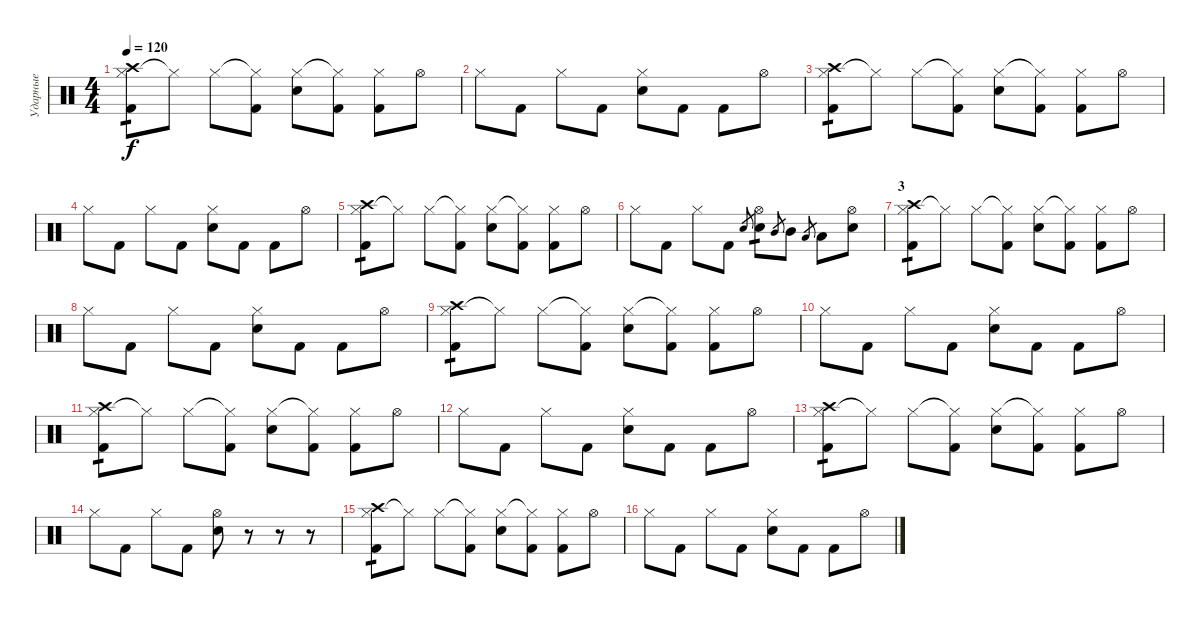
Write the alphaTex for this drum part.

\track ("Ударные" "Ударные") {instrument percussion}
\staff {score}
\articulation defaults
\ts (4 4)
\tempo 120
\clef neutral
\ks c
("Hi-Hat (closed)" "Kick (hit) 2" "Crash high (hit)").8{tp 1 dy f} "Hi-Hat (closed)"{t}.8 "Hi-Hat (closed)".8 ("Hi-Hat (closed)"{t} "Kick (hit) 2").8 ("Hi-Hat (closed)" "Electric Snare (hit)").8 ("Hi-Hat (closed)"{t} "Kick (hit) 2").8 ("Hi-Hat (closed)" "Kick (hit) 2").8 "Hi-Hat (open)".8 |
"Hi-Hat (closed)".8 "Kick (hit) 2".8 "Hi-Hat (closed)".8 "Kick (hit) 2".8 ("Electric Snare (hit)" "Hi-Hat (closed)").8 "Kick (hit) 2".8 "Kick (hit) 2".8 "Hi-Hat (open)".8 |
("Hi-Hat (closed)" "Kick (hit) 2" "Crash high (hit)").8{tp 1} "Hi-Hat (closed)"{t}.8 "Hi-Hat (closed)".8 ("Hi-Hat (closed)"{t} "Kick (hit) 2").8 ("Hi-Hat (closed)" "Electric Snare (hit)").8 ("Hi-Hat (closed)"{t} "Kick (hit) 2").8 ("Hi-Hat (closed)" "Kick (hit) 2").8 "Hi-Hat (open)".8 |
"Hi-Hat (closed)".8 "Kick (hit) 2".8 "Hi-Hat (closed)".8 "Kick (hit) 2".8 ("Electric Snare (hit)" "Hi-Hat (closed)").8 "Kick (hit) 2".8 "Kick (hit) 2".8 "Hi-Hat (open)".8 |
("Hi-Hat (closed)" "Kick (hit) 2" "Crash high (hit)").8{tp 1} "Hi-Hat (closed)"{t}.8 "Hi-Hat (closed)".8 ("Hi-Hat (closed)"{t} "Kick (hit) 2").8 ("Hi-Hat (closed)" "Electric Snare (hit)").8 ("Hi-Hat (closed)"{t} "Kick (hit) 2").8 ("Hi-Hat (closed)" "Kick (hit) 2").8 "Hi-Hat (open)".8 |
"Hi-Hat (closed)".8 "Kick (hit) 2".8 "Hi-Hat (closed)".8 "Kick (hit) 2".8 "Electric Snare (hit)".8{gr} ("Electric Snare (hit)" "Hi-Hat (open)").8{tp 1} "Mid Tom (hit)".8{gr} "Mid Tom (hit)".8 "Low Tom (hit)".8{gr} "Low Tom (hit)".8 ("Hi-Hat (open)" "Electric Snare (hit)").8 |
\section ("" "3")
("Hi-Hat (closed)" "Kick (hit) 2" "Crash high (hit)").8{tp 1} "Hi-Hat (closed)"{t}.8 "Hi-Hat (closed)".8 ("Hi-Hat (closed)"{t} "Kick (hit) 2").8 ("Hi-Hat (closed)" "Electric Snare (hit)").8 ("Hi-Hat (closed)"{t} "Kick (hit) 2").8 ("Hi-Hat (closed)" "Kick (hit) 2").8 "Hi-Hat (open)".8 |
"Hi-Hat (closed)".8 "Kick (hit) 2".8 "Hi-Hat (closed)".8 "Kick (hit) 2".8 ("Electric Snare (hit)" "Hi-Hat (closed)").8 "Kick (hit) 2".8 "Kick (hit) 2".8 "Hi-Hat (open)".8 |
("Hi-Hat (closed)" "Kick (hit) 2" "Crash high (hit)").8{tp 1} "Hi-Hat (closed)"{t}.8 "Hi-Hat (closed)".8 ("Hi-Hat (closed)"{t} "Kick (hit) 2").8 ("Hi-Hat (closed)" "Electric Snare (hit)").8 ("Hi-Hat (closed)"{t} "Kick (hit) 2").8 ("Hi-Hat (closed)" "Kick (hit) 2").8 "Hi-Hat (open)".8 |
"Hi-Hat (closed)".8 "Kick (hit) 2".8 "Hi-Hat (closed)".8 "Kick (hit) 2".8 ("Electric Snare (hit)" "Hi-Hat (closed)").8 "Kick (hit) 2".8 "Kick (hit) 2".8 "Hi-Hat (open)".8 |
("Hi-Hat (closed)" "Kick (hit) 2" "Crash high (hit)").8{tp 1} "Hi-Hat (closed)"{t}.8 "Hi-Hat (closed)".8 ("Hi-Hat (closed)"{t} "Kick (hit) 2").8 ("Hi-Hat (closed)" "Electric Snare (hit)").8 ("Hi-Hat (closed)"{t} "Kick (hit) 2").8 ("Hi-Hat (closed)" "Kick (hit) 2").8 "Hi-Hat (open)".8 |
"Hi-Hat (closed)".8 "Kick (hit) 2".8 "Hi-Hat (closed)".8 "Kick (hit) 2".8 ("Electric Snare (hit)" "Hi-Hat (closed)").8 "Kick (hit) 2".8 "Kick (hit) 2".8 "Hi-Hat (open)".8 |
("Hi-Hat (closed)" "Kick (hit) 2" "Crash high (hit)").8{tp 1} "Hi-Hat (closed)"{t}.8 "Hi-Hat (closed)".8 ("Hi-Hat (closed)"{t} "Kick (hit) 2").8 ("Hi-Hat (closed)" "Electric Snare (hit)").8 ("Hi-Hat (closed)"{t} "Kick (hit) 2").8 ("Hi-Hat (closed)" "Kick (hit) 2").8 "Hi-Hat (open)".8 |
"Hi-Hat (closed)".8 "Kick (hit) 2".8 "Hi-Hat (closed)".8 "Kick (hit) 2".8 ("Electric Snare (hit)" "Hi-Hat (open)").8 r.8 r.8 r.8 |
("Hi-Hat (closed)" "Kick (hit) 2" "Crash high (hit)").8{tp 1} "Hi-Hat (closed)"{t}.8 "Hi-Hat (closed)".8 ("Hi-Hat (closed)"{t} "Kick (hit) 2").8 ("Hi-Hat (closed)" "Electric Snare (hit)").8 ("Hi-Hat (closed)"{t} "Kick (hit) 2").8 ("Hi-Hat (closed)" "Kick (hit) 2").8 "Hi-Hat (open)".8 |
"Hi-Hat (closed)".8 "Kick (hit) 2".8 "Hi-Hat (closed)".8 "Kick (hit) 2".8 ("Electric Snare (hit)" "Hi-Hat (closed)").8 "Kick (hit) 2".8 "Kick (hit) 2".8 "Hi-Hat (open)".8
